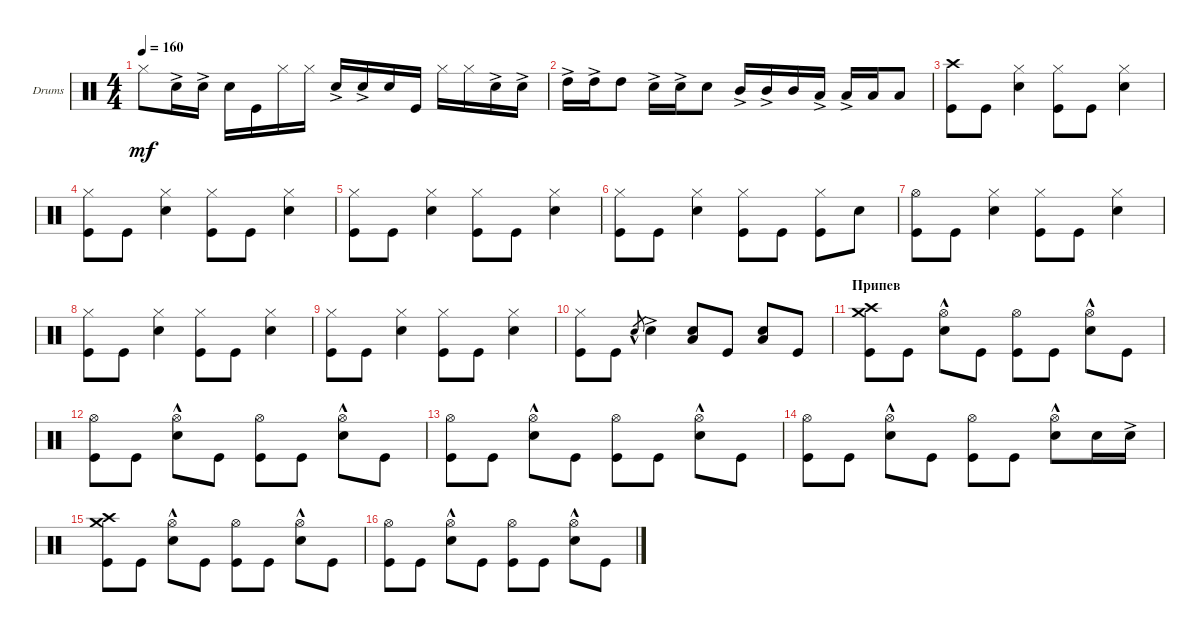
\defaultSystemsLayout 4
\bracketExtendMode groupsimilarinstruments
\firstSystemTrackNameOrientation horizontal
\otherSystemsTrackNameOrientation horizontal
\track ("Drumkit" "Drums") {instrument percussion}
\staff {score}
\articulation defaults
\ts (4 4)
\tempo 160
\clef neutral
\ks c "Hi-Hat (closed)".8{dy mf} "Snare (hit) 2"{ac}.16 "Snare (hit) 2"{ac}.16 "Snare (hit) 2".16 "Kick (hit)".16 "Hi-Hat (closed)".16 "Hi-Hat (closed)".16 "Snare (hit) 2"{ac}.16 "Snare (hit) 2"{ac}.16 "Snare (hit) 2".16 "Kick (hit)".16 "Hi-Hat (closed)".16 "Hi-Hat (closed)".16 "Snare (hit) 2"{ac}.16 "Snare (hit) 2"{ac}.16
|
"High Tom (hit)"{ac}.16 "High Tom (hit)"{ac}.16 "High Tom (hit)".8 "Snare (hit) 2"{ac}.16 "Snare (hit) 2"{ac}.16 "Snare (hit) 2".8 "Mid Tom (hit)"{ac}.16 "Mid Tom (hit)"{ac}.16 "Mid Tom (hit)".16 "Low Tom (hit)"{ac}.16 "Low Tom (hit)"{ac}.16 "Low Tom (hit)".16 "Low Tom (hit)".8 |
("Kick (hit)" "Crash high (hit)").8 "Kick (hit)".8 ("Snare (hit) 2" "Hi-Hat (closed)").4 ("Kick (hit)" "Hi-Hat (closed)").8 "Kick (hit)".8 ("Snare (hit) 2" "Hi-Hat (closed)").4 |
("Kick (hit)" "Hi-Hat (closed)").8 "Kick (hit)".8 ("Snare (hit) 2" "Hi-Hat (closed)").4 ("Kick (hit)" "Hi-Hat (closed)").8 "Kick (hit)".8 ("Snare (hit) 2" "Hi-Hat (closed)").4 |
("Kick (hit)" "Hi-Hat (closed)").8 "Kick (hit)".8 ("Snare (hit) 2" "Hi-Hat (closed)").4 ("Kick (hit)" "Hi-Hat (closed)").8 "Kick (hit)".8 ("Snare (hit) 2" "Hi-Hat (closed)").4 |
("Kick (hit)" "Hi-Hat (closed)").8 "Kick (hit)".8 ("Snare (hit) 2" "Hi-Hat (closed)").4 ("Kick (hit)" "Hi-Hat (closed)").8 "Kick (hit)".8 ("Kick (hit)" "Hi-Hat (closed)").8 "Snare (hit) 2".8 |
("Kick (hit)" "Hi-Hat (open)").8 "Kick (hit)".8 ("Snare (hit) 2" "Hi-Hat (closed)").4 ("Kick (hit)" "Hi-Hat (closed)").8 "Kick (hit)".8 ("Snare (hit) 2" "Hi-Hat (closed)").4 |
("Kick (hit)" "Hi-Hat (closed)").8 "Kick (hit)".8 ("Snare (hit) 2" "Hi-Hat (closed)").4 ("Kick (hit)" "Hi-Hat (closed)").8 "Kick (hit)".8 ("Snare (hit) 2" "Hi-Hat (closed)").4 |
("Kick (hit)" "Hi-Hat (closed)").8 "Kick (hit)".8 ("Snare (hit) 2" "Hi-Hat (closed)").4 ("Kick (hit)" "Hi-Hat (closed)").8 "Kick (hit)".8 ("Snare (hit) 2" "Hi-Hat (closed)").4 |
("Kick (hit)" "Hi-Hat (closed)").8 "Kick (hit)".8 "Snare (hit) 2"{hac}.8{gr} "Snare (hit) 2"{ac}.4 ("Snare (hit) 2" "Low Tom (hit)").8 "Kick (hit)".8 ("Snare (hit) 2" "Low Tom (hit)").8 "Kick (hit)".8 |
\section ("" "Припев")
("Kick (hit)" "Crash high (hit)" "Crash medium (hit)").8 "Kick (hit)".8 ("Snare (hit) 2"{hac} "Hi-Hat (open)").8 "Kick (hit)".8 ("Kick (hit)" "Hi-Hat (open)").8 "Kick (hit)".8 ("Snare (hit) 2"{hac} "Hi-Hat (open)").8 "Kick (hit)".8 |
("Kick (hit)" "Hi-Hat (open)").8 "Kick (hit)".8 ("Snare (hit) 2"{hac} "Hi-Hat (open)").8 "Kick (hit)".8 ("Kick (hit)" "Hi-Hat (open)").8 "Kick (hit)".8 ("Snare (hit) 2"{hac} "Hi-Hat (open)").8 "Kick (hit)".8 |
("Kick (hit)" "Hi-Hat (open)").8 "Kick (hit)".8 ("Snare (hit) 2"{hac} "Hi-Hat (open)").8 "Kick (hit)".8 ("Kick (hit)" "Hi-Hat (open)").8 "Kick (hit)".8 ("Snare (hit) 2"{hac} "Hi-Hat (open)").8 "Kick (hit)".8 |
("Kick (hit)" "Hi-Hat (open)").8 "Kick (hit)".8 ("Snare (hit) 2"{hac} "Hi-Hat (open)").8 "Kick (hit)".8 ("Kick (hit)" "Hi-Hat (open)").8 "Kick (hit)".8 ("Snare (hit) 2"{hac} "Hi-Hat (open)").8 "Snare (hit) 2".16 "Snare (hit) 2"{ac}.16 |
("Kick (hit)" "Crash high (hit)" "Crash medium (hit)").8 "Kick (hit)".8 ("Snare (hit) 2"{hac} "Hi-Hat (open)").8 "Kick (hit)".8 ("Kick (hit)" "Hi-Hat (open)").8 "Kick (hit)".8 ("Snare (hit) 2"{hac} "Hi-Hat (open)").8 "Kick (hit)".8 |
("Kick (hit)" "Hi-Hat (open)").8 "Kick (hit)".8 ("Snare (hit) 2"{hac} "Hi-Hat (open)").8 "Kick (hit)".8 ("Kick (hit)" "Hi-Hat (open)").8 "Kick (hit)".8 ("Snare (hit) 2"{hac} "Hi-Hat (open)").8 "Kick (hit)".8
